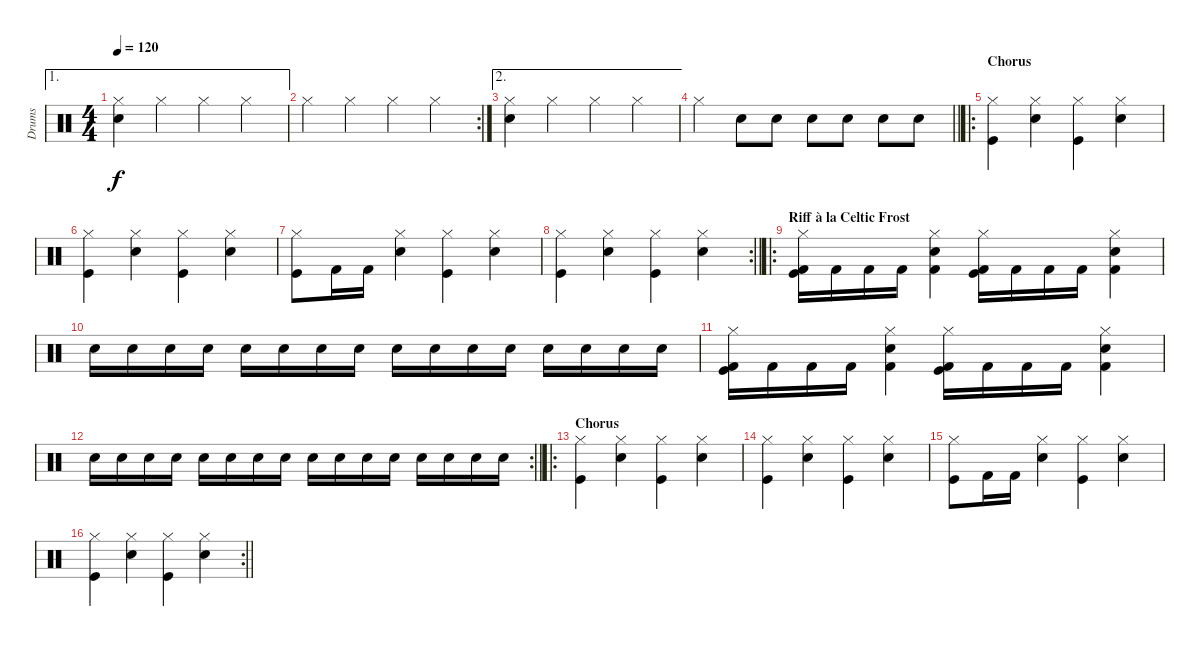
\track ("Drums" "Drums") {instrument percussion}
\staff {score}
\articulation defaults
\ae 1
\ts (4 4)
\tempo 120
\clef neutral
\ks c
("Hi-Hat (closed)" "Snare (hit) 2").4{dy f} "Hi-Hat (closed)".4 "Hi-Hat (closed)".4 "Hi-Hat (closed)".4 |
\rc 2 "Hi-Hat (closed)".4 "Hi-Hat (closed)".4 "Hi-Hat (closed)".4 "Hi-Hat (closed)".4
|
\ae 2
("Hi-Hat (closed)" "Snare (hit) 2").4 "Hi-Hat (closed)".4 "Hi-Hat (closed)".4 "Hi-Hat (closed)".4 |
\barLineRight lightlight "Hi-Hat (closed)".4 "Snare (hit) 2".8 "Snare (hit) 2".8 "Snare (hit) 2".8 "Snare (hit) 2".8 "Snare (hit) 2".8 "Snare (hit) 2".8
|
\ro
\section ("" "Chorus")
("Hi-Hat (closed)" "Kick (hit)").4 ("Hi-Hat (closed)" "Snare (hit) 2").4 ("Hi-Hat (closed)" "Kick (hit)").4 ("Hi-Hat (closed)" "Snare (hit) 2").4 |
("Hi-Hat (closed)" "Kick (hit)").4 ("Hi-Hat (closed)" "Snare (hit) 2").4 ("Hi-Hat (closed)" "Kick (hit)").4 ("Hi-Hat (closed)" "Snare (hit) 2").4 |
("Hi-Hat (closed)" "Kick (hit)").8 "Kick (hit) 2".16 "Kick (hit) 2".16 ("Hi-Hat (closed)" "Snare (hit) 2").4 ("Hi-Hat (closed)" "Kick (hit)").4 ("Hi-Hat (closed)" "Snare (hit) 2").4 |
\rc 2
\barLineRight lightlight
("Hi-Hat (closed)" "Kick (hit)").4 ("Hi-Hat (closed)" "Snare (hit) 2").4 ("Hi-Hat (closed)" "Kick (hit)").4 ("Hi-Hat (closed)" "Snare (hit) 2").4 |
\ro
\section ("" "Riff à la Celtic Frost")
("Kick (hit) 2" "Hi-Hat (closed)" "Kick (hit)").16 "Kick (hit) 2".16 "Kick (hit) 2".16 "Kick (hit) 2".16 ("Kick (hit) 2" "Hi-Hat (closed)" "Snare (hit) 2").4 ("Kick (hit) 2" "Hi-Hat (closed)" "Kick (hit)").16 "Kick (hit) 2".16 "Kick (hit) 2".16 "Kick (hit) 2".16 ("Kick (hit) 2" "Hi-Hat (closed)" "Snare (hit) 2").4 |
"Snare (hit) 2".16 "Snare (hit) 2".16 "Snare (hit) 2".16 "Snare (hit) 2".16 "Snare (hit) 2".16 "Snare (hit) 2".16 "Snare (hit) 2".16 "Snare (hit) 2".16 "Snare (hit) 2".16 "Snare (hit) 2".16 "Snare (hit) 2".16 "Snare (hit) 2".16 "Snare (hit) 2".16 "Snare (hit) 2".16 "Snare (hit) 2".16 "Snare (hit) 2".16 |
("Kick (hit) 2" "Hi-Hat (closed)" "Kick (hit)").16 "Kick (hit) 2".16 "Kick (hit) 2".16 "Kick (hit) 2".16 ("Kick (hit) 2" "Hi-Hat (closed)" "Snare (hit) 2").4 ("Kick (hit) 2" "Hi-Hat (closed)" "Kick (hit)").16 "Kick (hit) 2".16 "Kick (hit) 2".16 "Kick (hit) 2".16 ("Kick (hit) 2" "Hi-Hat (closed)" "Snare (hit) 2").4 |
\rc 2
\barLineRight lightlight "Snare (hit) 2".16 "Snare (hit) 2".16 "Snare (hit) 2".16 "Snare (hit) 2".16 "Snare (hit) 2".16 "Snare (hit) 2".16 "Snare (hit) 2".16 "Snare (hit) 2".16 "Snare (hit) 2".16 "Snare (hit) 2".16 "Snare (hit) 2".16 "Snare (hit) 2".16 "Snare (hit) 2".16 "Snare (hit) 2".16 "Snare (hit) 2".16 "Snare (hit) 2".16
|
\ro
\section ("" "Chorus")
("Hi-Hat (closed)" "Kick (hit)").4 ("Hi-Hat (closed)" "Snare (hit) 2").4 ("Hi-Hat (closed)" "Kick (hit)").4 ("Hi-Hat (closed)" "Snare (hit) 2").4 |
("Hi-Hat (closed)" "Kick (hit)").4 ("Hi-Hat (closed)" "Snare (hit) 2").4 ("Hi-Hat (closed)" "Kick (hit)").4 ("Hi-Hat (closed)" "Snare (hit) 2").4 |
("Hi-Hat (closed)" "Kick (hit)").8 "Kick (hit) 2".16 "Kick (hit) 2".16 ("Hi-Hat (closed)" "Snare (hit) 2").4 ("Hi-Hat (closed)" "Kick (hit)").4 ("Hi-Hat (closed)" "Snare (hit) 2").4 |
\rc 2
\barLineRight lightlight
("Hi-Hat (closed)" "Kick (hit)").4 ("Hi-Hat (closed)" "Snare (hit) 2").4 ("Hi-Hat (closed)" "Kick (hit)").4 ("Hi-Hat (closed)" "Snare (hit) 2").4
